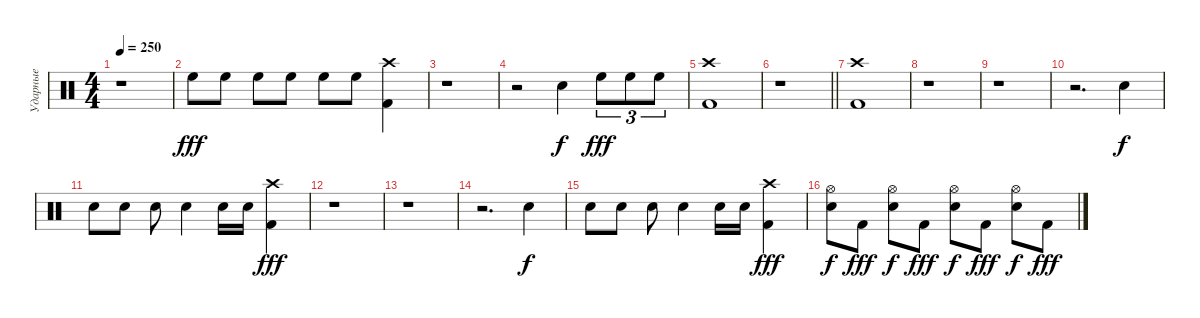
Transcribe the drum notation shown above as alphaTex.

\track ("Ударные" "Ударные") {instrument percussion}
\staff {score}
\articulation defaults
\ts (4 4)
\tempo 250
\clef neutral
\ks c
r.1{dy fff} |
"High Floor Tom (hit)".8 "High Floor Tom (hit)".8 "High Floor Tom (hit)".8 "High Floor Tom (hit)".8 "High Floor Tom (hit)".8 "High Floor Tom (hit)".8 ("Kick (hit) 2" "Crash high (hit)").4 |
r.1 |
r.2 "Snare (hit) 2".4{dy f} "High Floor Tom (hit)".8{tu (3 2) dy fff} "High Floor Tom (hit)".8{tu (3 2)} "High Floor Tom (hit)".8{tu (3 2)} |
("Kick (hit) 2" "Crash high (hit)").1 |
\barLineRight lightlight
r.1 |
("Kick (hit) 2" "Crash high (hit)").1 |
r.1 |
r.1 |
r.2{d} "Snare (hit) 2".4{dy f} |
"Electric Snare (hit)".8 "Electric Snare (hit)".8 "Electric Snare (hit)".8 "Electric Snare (hit)".4 "Electric Snare (hit)".16 "Electric Snare (hit)".16 ("Kick (hit) 2" "Crash high (hit)").4{dy fff} |
r.1 |
r.1 |
r.2{d} "Snare (hit) 2".4{dy f} |
"Electric Snare (hit)".8 "Electric Snare (hit)".8 "Electric Snare (hit)".8 "Electric Snare (hit)".4 "Electric Snare (hit)".16 "Electric Snare (hit)".16 ("Kick (hit) 2" "Crash high (hit)").4{dy fff} |
("Snare (hit) 2" "Hi-Hat (open)").8{dy f} "Kick (hit) 2".8{dy fff} ("Snare (hit) 2" "Hi-Hat (open)").8{dy f} "Kick (hit) 2".8{dy fff} ("Snare (hit) 2" "Hi-Hat (open)").8{dy f} "Kick (hit) 2".8{dy fff} ("Snare (hit) 2" "Hi-Hat (open)").8{dy f} "Kick (hit) 2".8{dy fff}
